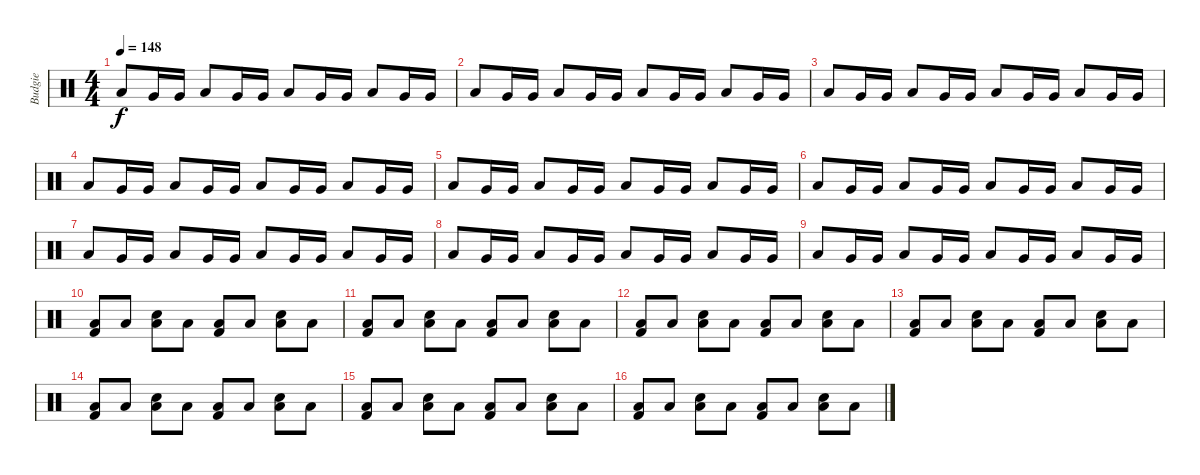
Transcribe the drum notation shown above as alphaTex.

\track ("Budgie" "Budgie") {instrument percussion}
\staff {score}
\articulation defaults
\ts (4 4)
\tempo 148
\clef neutral
\ks c "Low Floor Tom (hit)".8{dy f} "Very Low Tom (hit)".16 "Very Low Tom (hit)".16 "Low Tom (hit)".8 "Very Low Tom (hit)".16 "Very Low Tom (hit)".16 "Low Floor Tom (hit)".8 "Very Low Tom (hit)".16 "Very Low Tom (hit)".16 "Low Tom (hit)".8 "Very Low Tom (hit)".16 "Very Low Tom (hit)".16
|
"Low Floor Tom (hit)".8 "Very Low Tom (hit)".16 "Very Low Tom (hit)".16 "Low Tom (hit)".8 "Very Low Tom (hit)".16 "Very Low Tom (hit)".16 "Low Floor Tom (hit)".8 "Very Low Tom (hit)".16 "Very Low Tom (hit)".16 "Low Tom (hit)".8 "Very Low Tom (hit)".16 "Very Low Tom (hit)".16 |
"Low Floor Tom (hit)".8 "Very Low Tom (hit)".16 "Very Low Tom (hit)".16 "Low Tom (hit)".8 "Very Low Tom (hit)".16 "Very Low Tom (hit)".16 "Low Floor Tom (hit)".8 "Very Low Tom (hit)".16 "Very Low Tom (hit)".16 "Low Tom (hit)".8 "Very Low Tom (hit)".16 "Very Low Tom (hit)".16 |
"Low Floor Tom (hit)".8 "Very Low Tom (hit)".16 "Very Low Tom (hit)".16 "Low Tom (hit)".8 "Very Low Tom (hit)".16 "Very Low Tom (hit)".16 "Low Floor Tom (hit)".8 "Very Low Tom (hit)".16 "Very Low Tom (hit)".16 "Low Tom (hit)".8 "Very Low Tom (hit)".16 "Very Low Tom (hit)".16 |
"Low Floor Tom (hit)".8 "Very Low Tom (hit)".16 "Very Low Tom (hit)".16 "Low Tom (hit)".8 "Very Low Tom (hit)".16 "Very Low Tom (hit)".16 "Low Floor Tom (hit)".8 "Very Low Tom (hit)".16 "Very Low Tom (hit)".16 "Low Tom (hit)".8 "Very Low Tom (hit)".16 "Very Low Tom (hit)".16 |
"Low Floor Tom (hit)".8 "Very Low Tom (hit)".16 "Very Low Tom (hit)".16 "Low Tom (hit)".8 "Very Low Tom (hit)".16 "Very Low Tom (hit)".16 "Low Floor Tom (hit)".8 "Very Low Tom (hit)".16 "Very Low Tom (hit)".16 "Low Tom (hit)".8 "Very Low Tom (hit)".16 "Very Low Tom (hit)".16 |
"Low Floor Tom (hit)".8 "Very Low Tom (hit)".16 "Very Low Tom (hit)".16 "Low Tom (hit)".8 "Very Low Tom (hit)".16 "Very Low Tom (hit)".16 "Low Floor Tom (hit)".8 "Very Low Tom (hit)".16 "Very Low Tom (hit)".16 "Low Tom (hit)".8 "Very Low Tom (hit)".16 "Very Low Tom (hit)".16 |
"Low Floor Tom (hit)".8 "Very Low Tom (hit)".16 "Very Low Tom (hit)".16 "Low Tom (hit)".8 "Very Low Tom (hit)".16 "Very Low Tom (hit)".16 "Low Floor Tom (hit)".8 "Very Low Tom (hit)".16 "Very Low Tom (hit)".16 "Low Tom (hit)".8 "Very Low Tom (hit)".16 "Very Low Tom (hit)".16 |
"Low Floor Tom (hit)".8 "Very Low Tom (hit)".16 "Very Low Tom (hit)".16 "Low Tom (hit)".8 "Very Low Tom (hit)".16 "Very Low Tom (hit)".16 "Low Floor Tom (hit)".8 "Very Low Tom (hit)".16 "Very Low Tom (hit)".16 "Low Tom (hit)".8 "Very Low Tom (hit)".16 "Very Low Tom (hit)".16 |
("Low Floor Tom (hit)" "Kick (hit) 2").8 "Low Floor Tom (hit)".8 ("Snare (hit) 2" "Low Floor Tom (hit)").8 "Low Floor Tom (hit)".8 ("Low Floor Tom (hit)" "Kick (hit) 2").8 "Low Floor Tom (hit)".8 ("Snare (hit) 2" "Low Floor Tom (hit)").8 "Low Floor Tom (hit)".8 |
("Low Floor Tom (hit)" "Kick (hit) 2").8 "Low Floor Tom (hit)".8 ("Snare (hit) 2" "Low Floor Tom (hit)").8 "Low Floor Tom (hit)".8 ("Low Floor Tom (hit)" "Kick (hit) 2").8 "Low Floor Tom (hit)".8 ("Snare (hit) 2" "Low Floor Tom (hit)").8 "Low Floor Tom (hit)".8 |
("Low Floor Tom (hit)" "Kick (hit) 2").8 "Low Floor Tom (hit)".8 ("Snare (hit) 2" "Low Floor Tom (hit)").8 "Low Floor Tom (hit)".8 ("Low Floor Tom (hit)" "Kick (hit) 2").8 "Low Floor Tom (hit)".8 ("Snare (hit) 2" "Low Floor Tom (hit)").8 "Low Floor Tom (hit)".8 |
("Low Floor Tom (hit)" "Kick (hit) 2").8 "Low Floor Tom (hit)".8 ("Snare (hit) 2" "Low Floor Tom (hit)").8 "Low Floor Tom (hit)".8 ("Low Floor Tom (hit)" "Kick (hit) 2").8 "Low Floor Tom (hit)".8 ("Snare (hit) 2" "Low Floor Tom (hit)").8 "Low Floor Tom (hit)".8 |
("Low Floor Tom (hit)" "Kick (hit) 2").8 "Low Floor Tom (hit)".8 ("Snare (hit) 2" "Low Floor Tom (hit)").8 "Low Floor Tom (hit)".8 ("Low Floor Tom (hit)" "Kick (hit) 2").8 "Low Floor Tom (hit)".8 ("Snare (hit) 2" "Low Floor Tom (hit)").8 "Low Floor Tom (hit)".8 |
("Low Floor Tom (hit)" "Kick (hit) 2").8 "Low Floor Tom (hit)".8 ("Snare (hit) 2" "Low Floor Tom (hit)").8 "Low Floor Tom (hit)".8 ("Low Floor Tom (hit)" "Kick (hit) 2").8 "Low Floor Tom (hit)".8 ("Snare (hit) 2" "Low Floor Tom (hit)").8 "Low Floor Tom (hit)".8 |
("Low Floor Tom (hit)" "Kick (hit) 2").8 "Low Floor Tom (hit)".8 ("Snare (hit) 2" "Low Floor Tom (hit)").8 "Low Floor Tom (hit)".8 ("Low Floor Tom (hit)" "Kick (hit) 2").8 "Low Floor Tom (hit)".8 ("Snare (hit) 2" "Low Floor Tom (hit)").8 "Low Floor Tom (hit)".8
